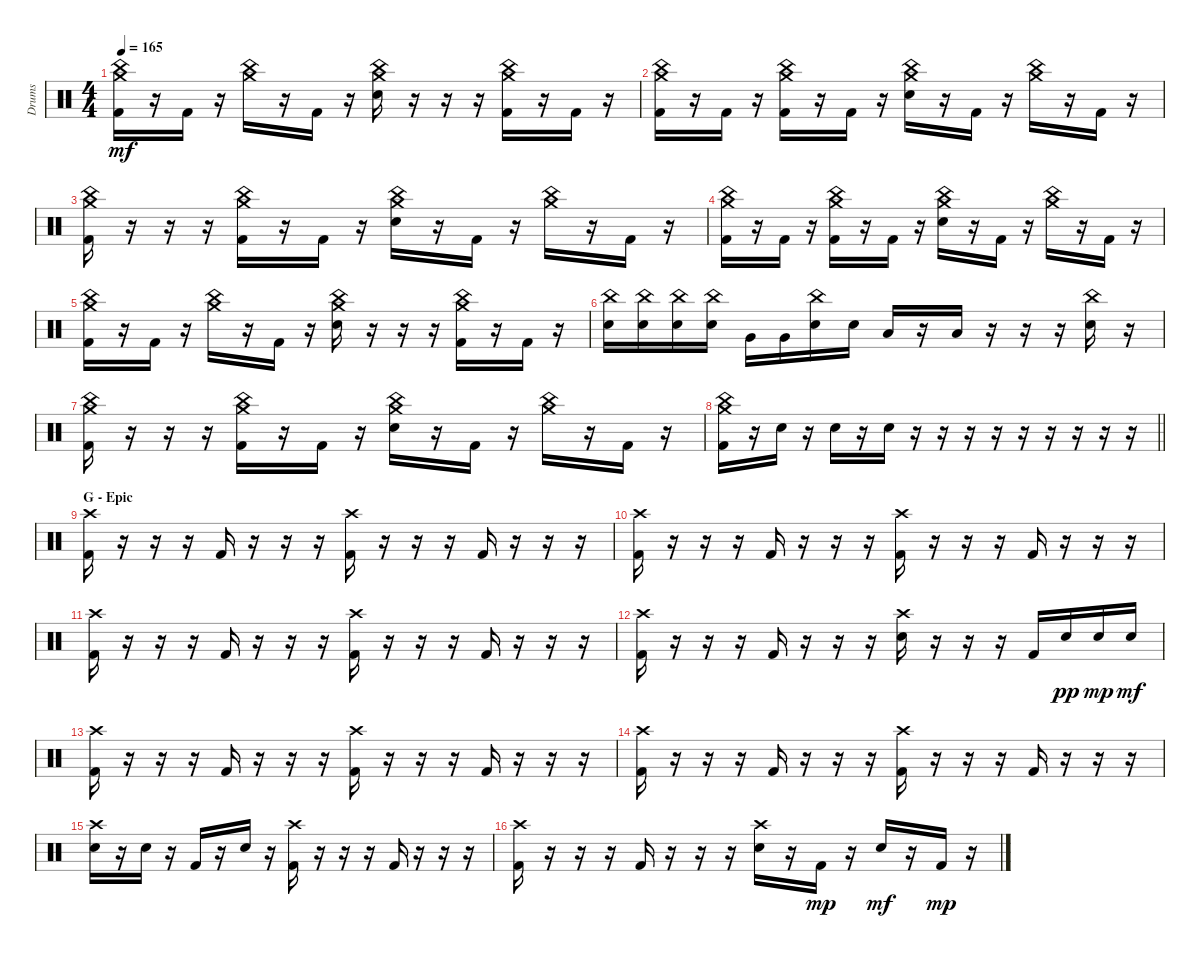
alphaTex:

\track ("Drums" "Drums") {instrument percussion}
\staff {score}
\articulation defaults
\ts (4 4)
\tempo 165
\clef neutral
\ks c
("Crash medium (hit)" "China (hit)" "Kick (hit) 2").16{dy mf} r.16 "Kick (hit) 2".16 r.16 ("Crash medium (hit)" "China (hit)").16 r.16 "Kick (hit) 2".16 r.16 ("Crash medium (hit)" "China (hit)" "Electric Snare (hit)").16 r.16 r.16 r.16 ("Crash medium (hit)" "China (hit)" "Kick (hit) 2").16 r.16 "Kick (hit) 2".16 r.16 |
("Crash medium (hit)" "China (hit)" "Kick (hit) 2").16 r.16 "Kick (hit) 2".16 r.16 ("Crash medium (hit)" "China (hit)" "Kick (hit) 2").16 r.16 "Kick (hit) 2".16 r.16 ("Crash medium (hit)" "China (hit)" "Electric Snare (hit)").16 r.16 "Kick (hit) 2".16 r.16 ("Crash medium (hit)" "China (hit)").16 r.16 "Kick (hit) 2".16 r.16 |
("Crash medium (hit)" "China (hit)" "Kick (hit) 2").16 r.16 r.16 r.16 ("Crash medium (hit)" "China (hit)" "Kick (hit) 2").16 r.16 "Kick (hit) 2".16 r.16 ("Crash medium (hit)" "China (hit)" "Electric Snare (hit)").16 r.16 "Kick (hit) 2".16 r.16 ("Crash medium (hit)" "China (hit)").16 r.16 "Kick (hit) 2".16 r.16 |
("Crash medium (hit)" "China (hit)" "Kick (hit) 2").16 r.16 "Kick (hit) 2".16 r.16 ("Crash medium (hit)" "China (hit)" "Kick (hit) 2").16 r.16 "Kick (hit) 2".16 r.16 ("Crash medium (hit)" "China (hit)" "Electric Snare (hit)").16 r.16 "Kick (hit) 2".16 r.16 ("Crash medium (hit)" "China (hit)").16 r.16 "Kick (hit) 2".16 r.16 |
("Crash medium (hit)" "China (hit)" "Kick (hit) 2").16 r.16 "Kick (hit) 2".16 r.16 ("Crash medium (hit)" "China (hit)").16 r.16 "Kick (hit) 2".16 r.16 ("Crash medium (hit)" "China (hit)" "Electric Snare (hit)").16 r.16 r.16 r.16 ("Crash medium (hit)" "China (hit)" "Kick (hit) 2").16 r.16 "Kick (hit) 2".16 r.16 |
("China (hit)" "Electric Snare (hit)").16 ("China (hit)" "Electric Snare (hit)").16 ("China (hit)" "Electric Snare (hit)").16 ("China (hit)" "Electric Snare (hit)").16 "Very Low Tom (hit)".16 "Very Low Tom (hit)".16 ("China (hit)" "Electric Snare (hit)").16 "Electric Snare (hit)".16 "Low Floor Tom (hit)".16 r.16 "Low Floor Tom (hit)".16 r.16 r.16 r.16 ("China (hit)" "Electric Snare (hit)").16 r.16 |
("Crash medium (hit)" "China (hit)" "Kick (hit) 2").16 r.16 r.16 r.16 ("Crash medium (hit)" "China (hit)" "Kick (hit) 2").16 r.16 "Kick (hit) 2".16 r.16 ("Crash medium (hit)" "China (hit)" "Electric Snare (hit)").16 r.16 "Kick (hit) 2".16 r.16 ("Crash medium (hit)" "China (hit)").16 r.16 "Kick (hit) 2".16 r.16 |
\barLineRight lightlight
("Crash medium (hit)" "China (hit)" "Kick (hit) 2").16 r.16 "Electric Snare (hit)".16 r.16 "Electric Snare (hit)".16 r.16 "Electric Snare (hit)".16 r.16 r.16 r.16 r.16 r.16 r.16 r.16 r.16 r.16 |
\section ("" "G - Epic")
("Crash high (hit)" "Kick (hit) 2").16 r.16 r.16 r.16 "Kick (hit) 2".16 r.16 r.16 r.16 ("Crash high (hit)" "Kick (hit) 2").16 r.16 r.16 r.16 "Kick (hit) 2".16 r.16 r.16 r.16 |
("Crash high (hit)" "Kick (hit) 2").16 r.16 r.16 r.16 "Kick (hit) 2".16 r.16 r.16 r.16 ("Crash high (hit)" "Kick (hit) 2").16 r.16 r.16 r.16 "Kick (hit) 2".16 r.16 r.16 r.16 |
("Crash high (hit)" "Kick (hit) 2").16 r.16 r.16 r.16 "Kick (hit) 2".16 r.16 r.16 r.16 ("Crash high (hit)" "Kick (hit) 2").16 r.16 r.16 r.16 "Kick (hit) 2".16 r.16 r.16 r.16 |
("Crash high (hit)" "Kick (hit) 2").16 r.16 r.16 r.16 "Kick (hit) 2".16 r.16 r.16 r.16 ("Crash high (hit)" "Electric Snare (hit)").16 r.16 r.16 r.16 "Kick (hit) 2".16 "Electric Snare (hit)".16{dy pp} "Electric Snare (hit)".16{dy mp} "Electric Snare (hit)".16{dy mf} |
("Crash high (hit)" "Kick (hit) 2").16 r.16 r.16 r.16 "Kick (hit) 2".16 r.16 r.16 r.16 ("Crash high (hit)" "Kick (hit) 2").16 r.16 r.16 r.16 "Kick (hit) 2".16 r.16 r.16 r.16 |
("Crash high (hit)" "Kick (hit) 2").16 r.16 r.16 r.16 "Kick (hit) 2".16 r.16 r.16 r.16 ("Crash high (hit)" "Kick (hit) 2").16 r.16 r.16 r.16 "Kick (hit) 2".16 r.16 r.16 r.16 |
("Crash high (hit)" "Electric Snare (hit)").16 r.16 "Electric Snare (hit)".16 r.16 "Kick (hit) 2".16 r.16 "Electric Snare (hit)".16 r.16 ("Crash high (hit)" "Kick (hit) 2").16 r.16 r.16 r.16 "Kick (hit) 2".16 r.16 r.16 r.16 |
("Crash high (hit)" "Kick (hit) 2").16 r.16 r.16 r.16 "Kick (hit) 2".16 r.16 r.16 r.16 ("Crash high (hit)" "Electric Snare (hit)").16 r.16 "Kick (hit) 2".16{dy mp} r.16 "Electric Snare (hit)".16{dy mf} r.16 "Kick (hit) 2".16{dy mp} r.16
